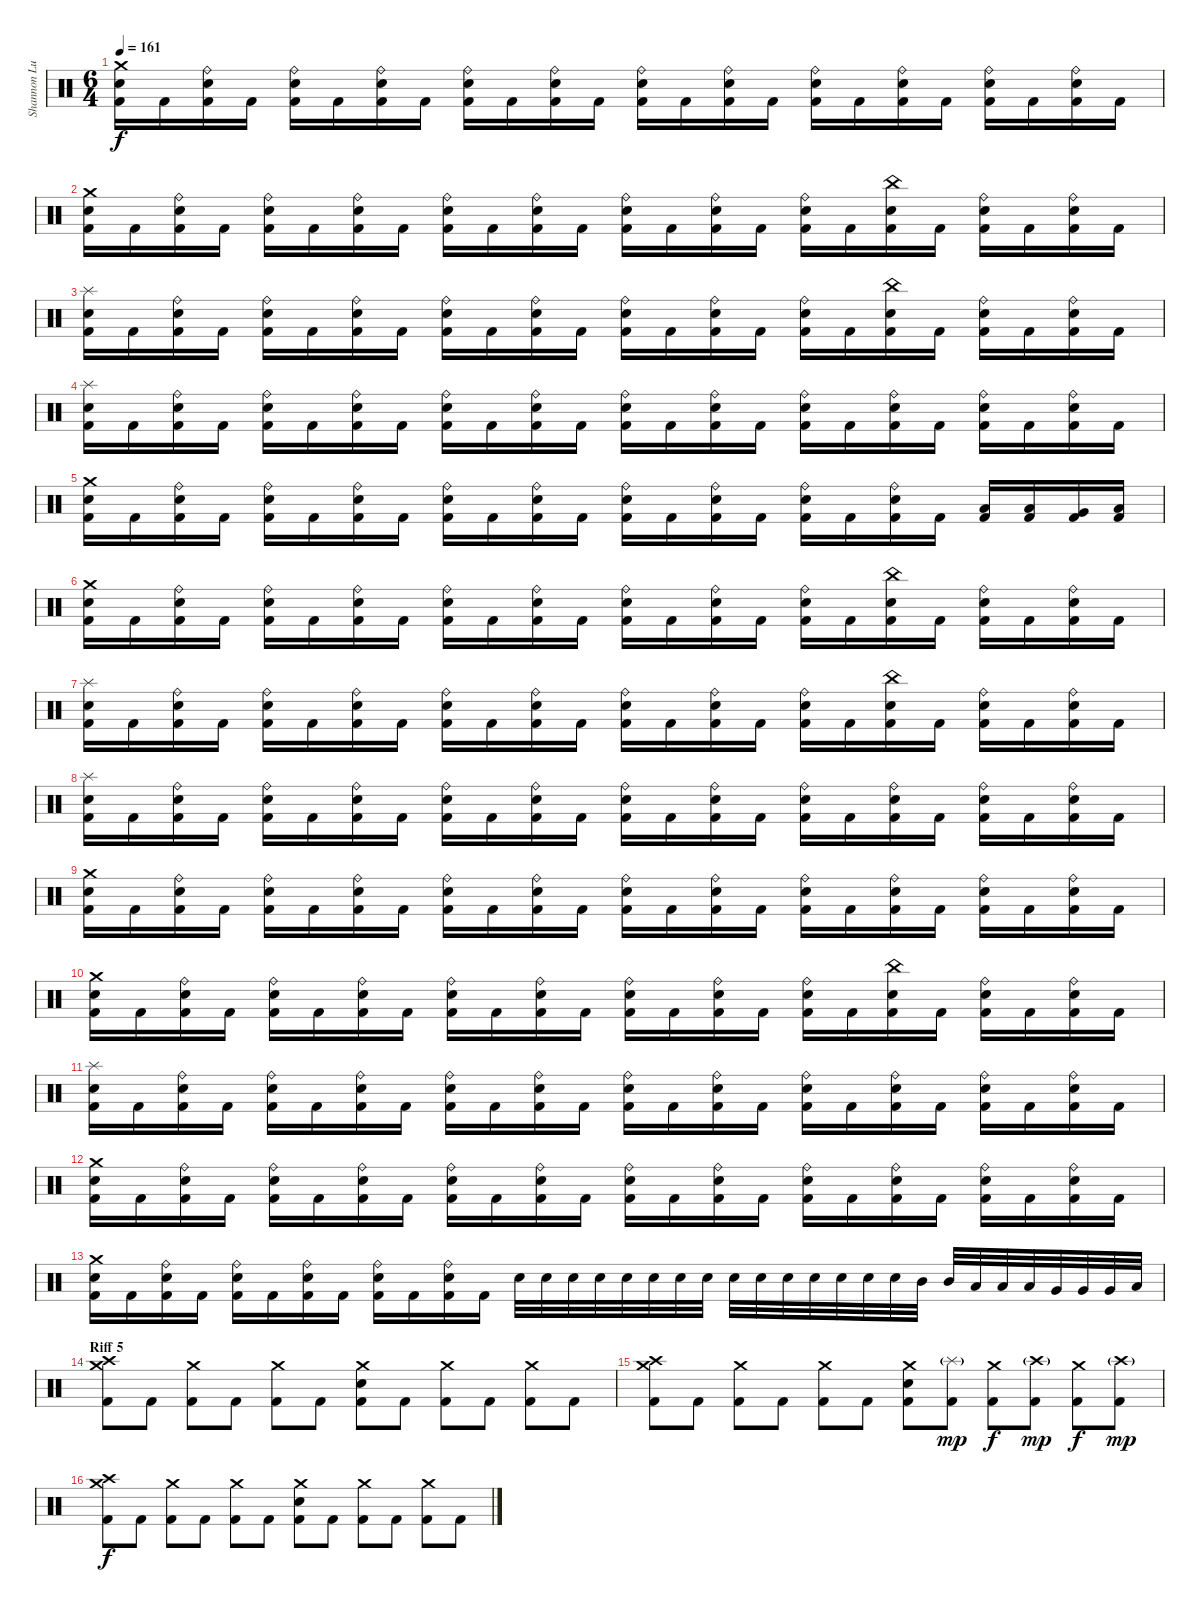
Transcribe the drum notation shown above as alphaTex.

\track ("Shannon Lucas (Drums)" "Shannon Lu") {instrument percussion}
\staff {score}
\articulation defaults
\ts (6 4)
\tempo 161
\clef neutral
\ks c
("Crash medium (hit)" "Snare (hit) 2" "Kick (hit) 2").16{dy f} "Kick (hit) 2".16 ("Ride (bell)" "Snare (hit) 2" "Kick (hit) 2").16 "Kick (hit) 2".16 ("Ride (bell)" "Snare (hit) 2" "Kick (hit) 2").16 "Kick (hit) 2".16 ("Ride (bell)" "Snare (hit) 2" "Kick (hit) 2").16 "Kick (hit) 2".16 ("Ride (bell)" "Snare (hit) 2" "Kick (hit) 2").16 "Kick (hit) 2".16 ("Ride (bell)" "Snare (hit) 2" "Kick (hit) 2").16 "Kick (hit) 2".16 ("Ride (bell)" "Snare (hit) 2" "Kick (hit) 2").16 "Kick (hit) 2".16 ("Ride (bell)" "Snare (hit) 2" "Kick (hit) 2").16 "Kick (hit) 2".16 ("Ride (bell)" "Snare (hit) 2" "Kick (hit) 2").16 "Kick (hit) 2".16 ("Ride (bell)" "Snare (hit) 2" "Kick (hit) 2").16 "Kick (hit) 2".16 ("Ride (bell)" "Snare (hit) 2" "Kick (hit) 2").16 "Kick (hit) 2".16 ("Ride (bell)" "Snare (hit) 2" "Kick (hit) 2").16 "Kick (hit) 2".16 |
("Crash medium (hit)" "Snare (hit) 2" "Kick (hit) 2").16 "Kick (hit) 2".16 ("Ride (bell)" "Snare (hit) 2" "Kick (hit) 2").16 "Kick (hit) 2".16 ("Ride (bell)" "Snare (hit) 2" "Kick (hit) 2").16 "Kick (hit) 2".16 ("Ride (bell)" "Snare (hit) 2" "Kick (hit) 2").16 "Kick (hit) 2".16 ("Ride (bell)" "Snare (hit) 2" "Kick (hit) 2").16 "Kick (hit) 2".16 ("Ride (bell)" "Snare (hit) 2" "Kick (hit) 2").16 "Kick (hit) 2".16 ("Ride (bell)" "Snare (hit) 2" "Kick (hit) 2").16 "Kick (hit) 2".16 ("Ride (bell)" "Snare (hit) 2" "Kick (hit) 2").16 "Kick (hit) 2".16 ("Ride (bell)" "Snare (hit) 2" "Kick (hit) 2").16 "Kick (hit) 2".16 ("China (hit)" "Snare (hit) 2" "Kick (hit) 2").16 "Kick (hit) 2".16 ("Ride (bell)" "Snare (hit) 2" "Kick (hit) 2").16 "Kick (hit) 2".16 ("Ride (bell)" "Snare (hit) 2" "Kick (hit) 2").16 "Kick (hit) 2".16 |
("Splash (hit)" "Snare (hit) 2" "Kick (hit) 2").16 "Kick (hit) 2".16 ("Ride (bell)" "Snare (hit) 2" "Kick (hit) 2").16 "Kick (hit) 2".16 ("Ride (bell)" "Snare (hit) 2" "Kick (hit) 2").16 "Kick (hit) 2".16 ("Ride (bell)" "Snare (hit) 2" "Kick (hit) 2").16 "Kick (hit) 2".16 ("Ride (bell)" "Snare (hit) 2" "Kick (hit) 2").16 "Kick (hit) 2".16 ("Ride (bell)" "Snare (hit) 2" "Kick (hit) 2").16 "Kick (hit) 2".16 ("Ride (bell)" "Snare (hit) 2" "Kick (hit) 2").16 "Kick (hit) 2".16 ("Ride (bell)" "Snare (hit) 2" "Kick (hit) 2").16 "Kick (hit) 2".16 ("Ride (bell)" "Snare (hit) 2" "Kick (hit) 2").16 "Kick (hit) 2".16 ("China (hit)" "Snare (hit) 2" "Kick (hit) 2").16 "Kick (hit) 2".16 ("Ride (bell)" "Snare (hit) 2" "Kick (hit) 2").16 "Kick (hit) 2".16 ("Ride (bell)" "Snare (hit) 2" "Kick (hit) 2").16 "Kick (hit) 2".16 |
("Splash (hit)" "Snare (hit) 2" "Kick (hit) 2").16 "Kick (hit) 2".16 ("Ride (bell)" "Snare (hit) 2" "Kick (hit) 2").16 "Kick (hit) 2".16 ("Ride (bell)" "Snare (hit) 2" "Kick (hit) 2").16 "Kick (hit) 2".16 ("Ride (bell)" "Snare (hit) 2" "Kick (hit) 2").16 "Kick (hit) 2".16 ("Ride (bell)" "Snare (hit) 2" "Kick (hit) 2").16 "Kick (hit) 2".16 ("Ride (bell)" "Snare (hit) 2" "Kick (hit) 2").16 "Kick (hit) 2".16 ("Ride (bell)" "Snare (hit) 2" "Kick (hit) 2").16 "Kick (hit) 2".16 ("Ride (bell)" "Snare (hit) 2" "Kick (hit) 2").16 "Kick (hit) 2".16 ("Ride (bell)" "Snare (hit) 2" "Kick (hit) 2").16 "Kick (hit) 2".16 ("Ride (bell)" "Snare (hit) 2" "Kick (hit) 2").16 "Kick (hit) 2".16 ("Ride (bell)" "Snare (hit) 2" "Kick (hit) 2").16 "Kick (hit) 2".16 ("Ride (bell)" "Snare (hit) 2" "Kick (hit) 2").16 "Kick (hit) 2".16 |
("Crash medium (hit)" "Snare (hit) 2" "Kick (hit) 2").16 "Kick (hit) 2".16 ("Ride (bell)" "Snare (hit) 2" "Kick (hit) 2").16 "Kick (hit) 2".16 ("Ride (bell)" "Snare (hit) 2" "Kick (hit) 2").16 "Kick (hit) 2".16 ("Ride (bell)" "Snare (hit) 2" "Kick (hit) 2").16 "Kick (hit) 2".16 ("Ride (bell)" "Snare (hit) 2" "Kick (hit) 2").16 "Kick (hit) 2".16 ("Ride (bell)" "Snare (hit) 2" "Kick (hit) 2").16 "Kick (hit) 2".16 ("Ride (bell)" "Snare (hit) 2" "Kick (hit) 2").16 "Kick (hit) 2".16 ("Ride (bell)" "Snare (hit) 2" "Kick (hit) 2").16 "Kick (hit) 2".16 ("Ride (bell)" "Snare (hit) 2" "Kick (hit) 2").16 "Kick (hit) 2".16 ("Ride (bell)" "Snare (hit) 2" "Kick (hit) 2").16 "Kick (hit) 2".16 ("Low Tom (hit)" "Kick (hit) 2").16 ("Low Tom (hit)" "Kick (hit) 2").16 ("Very Low Tom (hit)" "Kick (hit) 2").16 ("Low Floor Tom (hit)" "Kick (hit) 2").16 |
("Crash medium (hit)" "Snare (hit) 2" "Kick (hit) 2").16 "Kick (hit) 2".16 ("Ride (bell)" "Snare (hit) 2" "Kick (hit) 2").16 "Kick (hit) 2".16 ("Ride (bell)" "Snare (hit) 2" "Kick (hit) 2").16 "Kick (hit) 2".16 ("Ride (bell)" "Snare (hit) 2" "Kick (hit) 2").16 "Kick (hit) 2".16 ("Ride (bell)" "Snare (hit) 2" "Kick (hit) 2").16 "Kick (hit) 2".16 ("Ride (bell)" "Snare (hit) 2" "Kick (hit) 2").16 "Kick (hit) 2".16 ("Ride (bell)" "Snare (hit) 2" "Kick (hit) 2").16 "Kick (hit) 2".16 ("Ride (bell)" "Snare (hit) 2" "Kick (hit) 2").16 "Kick (hit) 2".16 ("Ride (bell)" "Snare (hit) 2" "Kick (hit) 2").16 "Kick (hit) 2".16 ("China (hit)" "Snare (hit) 2" "Kick (hit) 2").16 "Kick (hit) 2".16 ("Ride (bell)" "Snare (hit) 2" "Kick (hit) 2").16 "Kick (hit) 2".16 ("Ride (bell)" "Snare (hit) 2" "Kick (hit) 2").16 "Kick (hit) 2".16 |
("Splash (hit)" "Snare (hit) 2" "Kick (hit) 2").16 "Kick (hit) 2".16 ("Ride (bell)" "Snare (hit) 2" "Kick (hit) 2").16 "Kick (hit) 2".16 ("Ride (bell)" "Snare (hit) 2" "Kick (hit) 2").16 "Kick (hit) 2".16 ("Ride (bell)" "Snare (hit) 2" "Kick (hit) 2").16 "Kick (hit) 2".16 ("Ride (bell)" "Snare (hit) 2" "Kick (hit) 2").16 "Kick (hit) 2".16 ("Ride (bell)" "Snare (hit) 2" "Kick (hit) 2").16 "Kick (hit) 2".16 ("Ride (bell)" "Snare (hit) 2" "Kick (hit) 2").16 "Kick (hit) 2".16 ("Ride (bell)" "Snare (hit) 2" "Kick (hit) 2").16 "Kick (hit) 2".16 ("Ride (bell)" "Snare (hit) 2" "Kick (hit) 2").16 "Kick (hit) 2".16 ("China (hit)" "Snare (hit) 2" "Kick (hit) 2").16 "Kick (hit) 2".16 ("Ride (bell)" "Snare (hit) 2" "Kick (hit) 2").16 "Kick (hit) 2".16 ("Ride (bell)" "Snare (hit) 2" "Kick (hit) 2").16 "Kick (hit) 2".16 |
("Splash (hit)" "Snare (hit) 2" "Kick (hit) 2").16 "Kick (hit) 2".16 ("Ride (bell)" "Snare (hit) 2" "Kick (hit) 2").16 "Kick (hit) 2".16 ("Ride (bell)" "Snare (hit) 2" "Kick (hit) 2").16 "Kick (hit) 2".16 ("Ride (bell)" "Snare (hit) 2" "Kick (hit) 2").16 "Kick (hit) 2".16 ("Ride (bell)" "Snare (hit) 2" "Kick (hit) 2").16 "Kick (hit) 2".16 ("Ride (bell)" "Snare (hit) 2" "Kick (hit) 2").16 "Kick (hit) 2".16 ("Ride (bell)" "Snare (hit) 2" "Kick (hit) 2").16 "Kick (hit) 2".16 ("Ride (bell)" "Snare (hit) 2" "Kick (hit) 2").16 "Kick (hit) 2".16 ("Ride (bell)" "Snare (hit) 2" "Kick (hit) 2").16 "Kick (hit) 2".16 ("Ride (bell)" "Snare (hit) 2" "Kick (hit) 2").16 "Kick (hit) 2".16 ("Ride (bell)" "Snare (hit) 2" "Kick (hit) 2").16 "Kick (hit) 2".16 ("Ride (bell)" "Snare (hit) 2" "Kick (hit) 2").16 "Kick (hit) 2".16 |
("Crash medium (hit)" "Snare (hit) 2" "Kick (hit) 2").16 "Kick (hit) 2".16 ("Ride (bell)" "Snare (hit) 2" "Kick (hit) 2").16 "Kick (hit) 2".16 ("Ride (bell)" "Snare (hit) 2" "Kick (hit) 2").16 "Kick (hit) 2".16 ("Ride (bell)" "Snare (hit) 2" "Kick (hit) 2").16 "Kick (hit) 2".16 ("Ride (bell)" "Snare (hit) 2" "Kick (hit) 2").16 "Kick (hit) 2".16 ("Ride (bell)" "Snare (hit) 2" "Kick (hit) 2").16 "Kick (hit) 2".16 ("Ride (bell)" "Snare (hit) 2" "Kick (hit) 2").16 "Kick (hit) 2".16 ("Ride (bell)" "Snare (hit) 2" "Kick (hit) 2").16 "Kick (hit) 2".16 ("Ride (bell)" "Snare (hit) 2" "Kick (hit) 2").16 "Kick (hit) 2".16 ("Ride (bell)" "Snare (hit) 2" "Kick (hit) 2").16 "Kick (hit) 2".16 ("Ride (bell)" "Snare (hit) 2" "Kick (hit) 2").16 "Kick (hit) 2".16 ("Ride (bell)" "Snare (hit) 2" "Kick (hit) 2").16 "Kick (hit) 2".16 |
("Crash medium (hit)" "Snare (hit) 2" "Kick (hit) 2").16 "Kick (hit) 2".16 ("Ride (bell)" "Snare (hit) 2" "Kick (hit) 2").16 "Kick (hit) 2".16 ("Ride (bell)" "Snare (hit) 2" "Kick (hit) 2").16 "Kick (hit) 2".16 ("Ride (bell)" "Snare (hit) 2" "Kick (hit) 2").16 "Kick (hit) 2".16 ("Ride (bell)" "Snare (hit) 2" "Kick (hit) 2").16 "Kick (hit) 2".16 ("Ride (bell)" "Snare (hit) 2" "Kick (hit) 2").16 "Kick (hit) 2".16 ("Ride (bell)" "Snare (hit) 2" "Kick (hit) 2").16 "Kick (hit) 2".16 ("Ride (bell)" "Snare (hit) 2" "Kick (hit) 2").16 "Kick (hit) 2".16 ("Ride (bell)" "Snare (hit) 2" "Kick (hit) 2").16 "Kick (hit) 2".16 ("China (hit)" "Snare (hit) 2" "Kick (hit) 2").16 "Kick (hit) 2".16 ("Ride (bell)" "Snare (hit) 2" "Kick (hit) 2").16 "Kick (hit) 2".16 ("Ride (bell)" "Snare (hit) 2" "Kick (hit) 2").16 "Kick (hit) 2".16 |
("Splash (hit)" "Snare (hit) 2" "Kick (hit) 2").16 "Kick (hit) 2".16 ("Ride (bell)" "Snare (hit) 2" "Kick (hit) 2").16 "Kick (hit) 2".16 ("Ride (bell)" "Snare (hit) 2" "Kick (hit) 2").16 "Kick (hit) 2".16 ("Ride (bell)" "Snare (hit) 2" "Kick (hit) 2").16 "Kick (hit) 2".16 ("Ride (bell)" "Snare (hit) 2" "Kick (hit) 2").16 "Kick (hit) 2".16 ("Ride (bell)" "Snare (hit) 2" "Kick (hit) 2").16 "Kick (hit) 2".16 ("Ride (bell)" "Snare (hit) 2" "Kick (hit) 2").16 "Kick (hit) 2".16 ("Ride (bell)" "Snare (hit) 2" "Kick (hit) 2").16 "Kick (hit) 2".16 ("Ride (bell)" "Snare (hit) 2" "Kick (hit) 2").16 "Kick (hit) 2".16 ("Ride (bell)" "Snare (hit) 2" "Kick (hit) 2").16 "Kick (hit) 2".16 ("Ride (bell)" "Snare (hit) 2" "Kick (hit) 2").16 "Kick (hit) 2".16 ("Ride (bell)" "Snare (hit) 2" "Kick (hit) 2").16 "Kick (hit) 2".16 |
("Crash medium (hit)" "Snare (hit) 2" "Kick (hit) 2").16 "Kick (hit) 2".16 ("Ride (bell)" "Snare (hit) 2" "Kick (hit) 2").16 "Kick (hit) 2".16 ("Ride (bell)" "Snare (hit) 2" "Kick (hit) 2").16 "Kick (hit) 2".16 ("Ride (bell)" "Snare (hit) 2" "Kick (hit) 2").16 "Kick (hit) 2".16 ("Ride (bell)" "Snare (hit) 2" "Kick (hit) 2").16 "Kick (hit) 2".16 ("Ride (bell)" "Snare (hit) 2" "Kick (hit) 2").16 "Kick (hit) 2".16 ("Ride (bell)" "Snare (hit) 2" "Kick (hit) 2").16 "Kick (hit) 2".16 ("Ride (bell)" "Snare (hit) 2" "Kick (hit) 2").16 "Kick (hit) 2".16 ("Ride (bell)" "Snare (hit) 2" "Kick (hit) 2").16 "Kick (hit) 2".16 ("Ride (bell)" "Snare (hit) 2" "Kick (hit) 2").16 "Kick (hit) 2".16 ("Ride (bell)" "Snare (hit) 2" "Kick (hit) 2").16 "Kick (hit) 2".16 ("Ride (bell)" "Snare (hit) 2" "Kick (hit) 2").16 "Kick (hit) 2".16 |
("Crash medium (hit)" "Snare (hit) 2" "Kick (hit) 2").16 "Kick (hit) 2".16 ("Ride (bell)" "Snare (hit) 2" "Kick (hit) 2").16 "Kick (hit) 2".16 ("Ride (bell)" "Snare (hit) 2" "Kick (hit) 2").16 "Kick (hit) 2".16 ("Ride (bell)" "Snare (hit) 2" "Kick (hit) 2").16 "Kick (hit) 2".16 ("Ride (bell)" "Snare (hit) 2" "Kick (hit) 2").16 "Kick (hit) 2".16 ("Ride (bell)" "Snare (hit) 2" "Kick (hit) 2").16 "Kick (hit) 2".16 "Snare (hit) 2".32 "Snare (hit) 2".32 "Snare (hit) 2".32 "Snare (hit) 2".32 "Snare (hit) 2".32 "Snare (hit) 2".32 "Snare (hit) 2".32 "Snare (hit) 2".32 "Snare (hit) 2".32 "Snare (hit) 2".32 "Snare (hit) 2".32 "Snare (hit) 2".32 "Snare (hit) 2".32 "Snare (hit) 2".32 "Snare (hit) 2".32 "Mid Tom (hit)".32 "Mid Tom (hit)".32 "Low Tom (hit)".32 "Low Tom (hit)".32 "Low Tom (hit)".32 "Very Low Tom (hit)".32 "Very Low Tom (hit)".32 "Very Low Tom (hit)".32 "Low Floor Tom (hit)".32 |
\section ("" "Riff 5")
("Crash medium (hit)" "Crash high (hit)" "Kick (hit) 2").8 "Kick (hit) 2".8 ("Crash medium (hit)" "Kick (hit) 2").8 "Kick (hit) 2".8 ("Crash medium (hit)" "Kick (hit) 2").8 "Kick (hit) 2".8 ("Crash medium (hit)" "Snare (hit) 2" "Kick (hit) 2").8 "Kick (hit) 2".8 ("Crash medium (hit)" "Kick (hit) 2").8 "Kick (hit) 2".8 ("Crash medium (hit)" "Kick (hit) 2").8 "Kick (hit) 2".8 |
("Crash medium (hit)" "Crash high (hit)" "Kick (hit) 2").8 "Kick (hit) 2".8 ("Crash medium (hit)" "Kick (hit) 2").8 "Kick (hit) 2".8 ("Crash medium (hit)" "Kick (hit) 2").8 "Kick (hit) 2".8 ("Crash medium (hit)" "Snare (hit) 2" "Kick (hit) 2").8 ("Splash (hit)"{g} "Kick (hit) 2").8{dy mp} ("Crash medium (hit)" "Kick (hit) 2").8{dy f} ("Crash high (hit)"{g} "Kick (hit) 2").8{dy mp} ("Crash medium (hit)" "Kick (hit) 2").8{dy f} ("Crash high (hit)"{g} "Kick (hit) 2").8{dy mp} |
("Crash medium (hit)" "Crash high (hit)" "Kick (hit) 2").8{dy f} "Kick (hit) 2".8 ("Crash medium (hit)" "Kick (hit) 2").8 "Kick (hit) 2".8 ("Crash medium (hit)" "Kick (hit) 2").8 "Kick (hit) 2".8 ("Crash medium (hit)" "Snare (hit) 2" "Kick (hit) 2").8 "Kick (hit) 2".8 ("Crash medium (hit)" "Kick (hit) 2").8 "Kick (hit) 2".8 ("Crash medium (hit)" "Kick (hit) 2").8 "Kick (hit) 2".8
